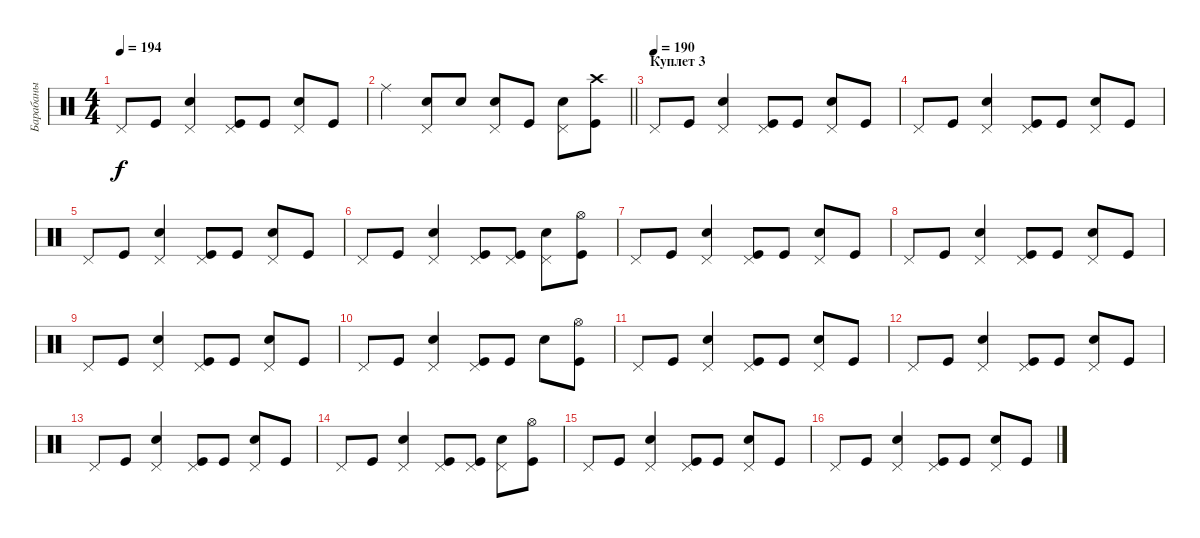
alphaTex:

\track ("Барабаны" "Барабаны") {instrument percussion}
\staff {score}
\articulation defaults
\ts (4 4)
\tempo 194
\clef neutral
\ks c "Pedal Hi-Hat (hit)".8{dy f} "Kick (hit)".8
("Snare (hit) 2" "Pedal Hi-Hat (hit)").4 ("Kick (hit)" "Pedal Hi-Hat (hit)").8 "Kick (hit)".8 ("Snare (hit) 2" "Pedal Hi-Hat (hit)").8 "Kick (hit)".8 |
\barLineRight lightlight "Ride (middle)".4
("Snare (hit) 2" "Pedal Hi-Hat (hit)").8 "Snare (hit) 2".8 ("Snare (hit) 2" "Pedal Hi-Hat (hit)").8 "Kick (hit)".8 ("Snare (hit) 2" "Pedal Hi-Hat (hit)").8 ("Kick (hit)" "Crash high (hit)").8 |
\section ("" "Куплет 3")
\tempo (190)
"Pedal Hi-Hat (hit)".8 "Kick (hit)".8 ("Snare (hit) 2" "Pedal Hi-Hat (hit)").4 ("Kick (hit)" "Pedal Hi-Hat (hit)").8 "Kick (hit)".8 ("Snare (hit) 2" "Pedal Hi-Hat (hit)").8 "Kick (hit)".8 |
"Pedal Hi-Hat (hit)".8 "Kick (hit)".8 ("Snare (hit) 2" "Pedal Hi-Hat (hit)").4 ("Kick (hit)" "Pedal Hi-Hat (hit)").8 "Kick (hit)".8 ("Snare (hit) 2" "Pedal Hi-Hat (hit)").8 "Kick (hit)".8 |
"Pedal Hi-Hat (hit)".8 "Kick (hit)".8 ("Snare (hit) 2" "Pedal Hi-Hat (hit)").4 ("Kick (hit)" "Pedal Hi-Hat (hit)").8 "Kick (hit)".8 ("Snare (hit) 2" "Pedal Hi-Hat (hit)").8 "Kick (hit)".8 |
"Pedal Hi-Hat (hit)".8 "Kick (hit)".8 ("Snare (hit) 2" "Pedal Hi-Hat (hit)").4 ("Kick (hit)" "Pedal Hi-Hat (hit)").8 ("Kick (hit)" "Pedal Hi-Hat (hit)").8 ("Snare (hit) 2" "Pedal Hi-Hat (hit)").8 ("Kick (hit)" "Hi-Hat (open)").8 |
"Pedal Hi-Hat (hit)".8 "Kick (hit)".8 ("Snare (hit) 2" "Pedal Hi-Hat (hit)").4 ("Kick (hit)" "Pedal Hi-Hat (hit)").8 "Kick (hit)".8 ("Snare (hit) 2" "Pedal Hi-Hat (hit)").8 "Kick (hit)".8 |
"Pedal Hi-Hat (hit)".8 "Kick (hit)".8 ("Snare (hit) 2" "Pedal Hi-Hat (hit)").4 ("Kick (hit)" "Pedal Hi-Hat (hit)").8 "Kick (hit)".8 ("Snare (hit) 2" "Pedal Hi-Hat (hit)").8 "Kick (hit)".8 |
"Pedal Hi-Hat (hit)".8 "Kick (hit)".8 ("Snare (hit) 2" "Pedal Hi-Hat (hit)").4 ("Kick (hit)" "Pedal Hi-Hat (hit)").8 "Kick (hit)".8 ("Snare (hit) 2" "Pedal Hi-Hat (hit)").8 "Kick (hit)".8 |
"Pedal Hi-Hat (hit)".8 "Kick (hit)".8 ("Snare (hit) 2" "Pedal Hi-Hat (hit)").4 ("Kick (hit)" "Pedal Hi-Hat (hit)").8 "Kick (hit)".8 "Snare (hit) 2".8 ("Kick (hit)" "Hi-Hat (open)").8 |
"Pedal Hi-Hat (hit)".8 "Kick (hit)".8 ("Snare (hit) 2" "Pedal Hi-Hat (hit)").4 ("Kick (hit)" "Pedal Hi-Hat (hit)").8 "Kick (hit)".8 ("Snare (hit) 2" "Pedal Hi-Hat (hit)").8 "Kick (hit)".8 |
"Pedal Hi-Hat (hit)".8 "Kick (hit)".8 ("Snare (hit) 2" "Pedal Hi-Hat (hit)").4 ("Kick (hit)" "Pedal Hi-Hat (hit)").8 "Kick (hit)".8 ("Snare (hit) 2" "Pedal Hi-Hat (hit)").8 "Kick (hit)".8 |
"Pedal Hi-Hat (hit)".8 "Kick (hit)".8 ("Snare (hit) 2" "Pedal Hi-Hat (hit)").4 ("Kick (hit)" "Pedal Hi-Hat (hit)").8 "Kick (hit)".8 ("Snare (hit) 2" "Pedal Hi-Hat (hit)").8 "Kick (hit)".8 |
"Pedal Hi-Hat (hit)".8 "Kick (hit)".8 ("Snare (hit) 2" "Pedal Hi-Hat (hit)").4 ("Kick (hit)" "Pedal Hi-Hat (hit)").8 ("Kick (hit)" "Pedal Hi-Hat (hit)").8 ("Snare (hit) 2" "Pedal Hi-Hat (hit)").8 ("Kick (hit)" "Hi-Hat (open)").8 |
"Pedal Hi-Hat (hit)".8 "Kick (hit)".8 ("Snare (hit) 2" "Pedal Hi-Hat (hit)").4 ("Kick (hit)" "Pedal Hi-Hat (hit)").8 "Kick (hit)".8 ("Snare (hit) 2" "Pedal Hi-Hat (hit)").8 "Kick (hit)".8 |
"Pedal Hi-Hat (hit)".8 "Kick (hit)".8 ("Snare (hit) 2" "Pedal Hi-Hat (hit)").4 ("Kick (hit)" "Pedal Hi-Hat (hit)").8 "Kick (hit)".8 ("Snare (hit) 2" "Pedal Hi-Hat (hit)").8 "Kick (hit)".8
